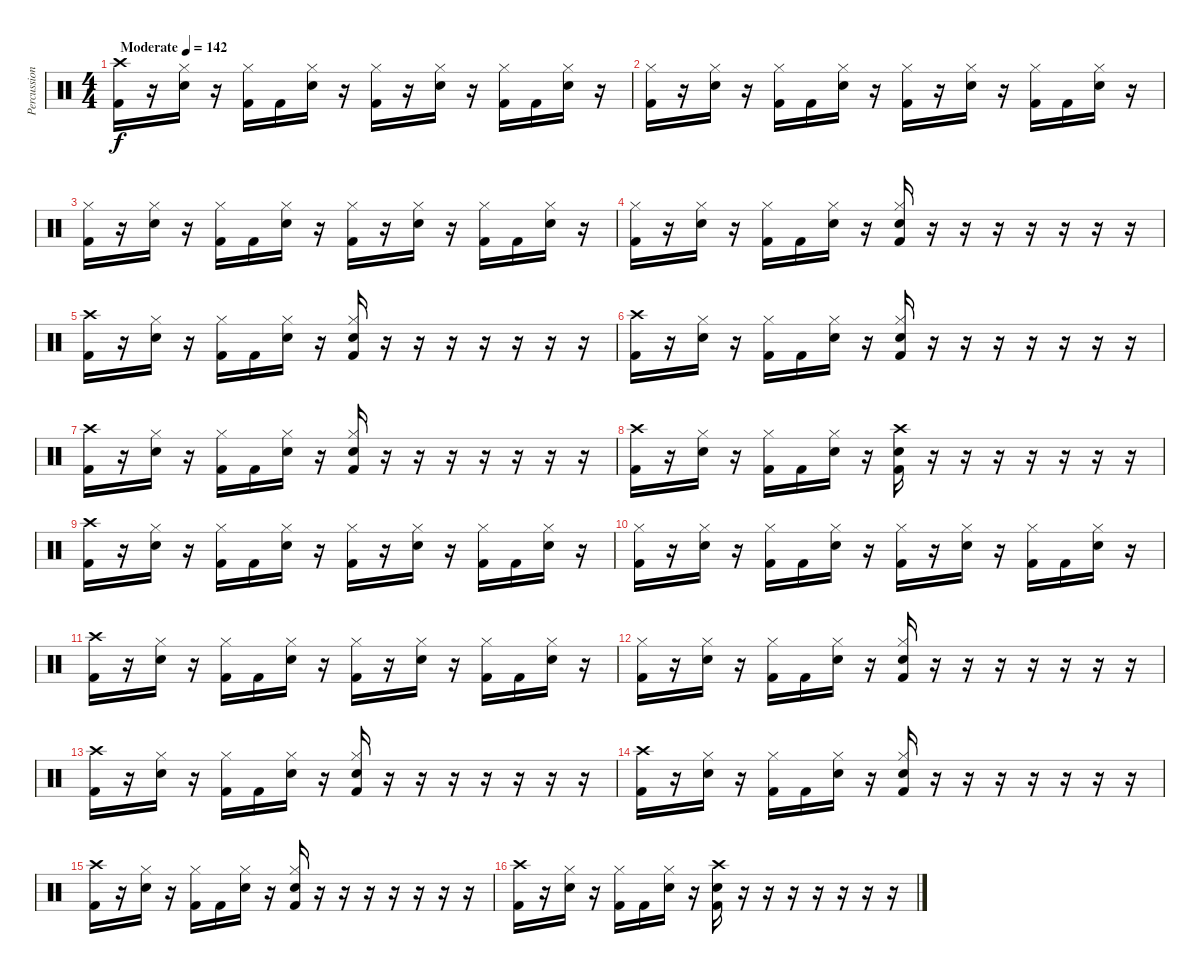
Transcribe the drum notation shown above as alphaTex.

\track ("Percussion" "Percussion") {instrument percussion}
\staff {score}
\articulation defaults
\ts (4 4)
\tempo (142 "Moderate")
\clef neutral
\ks c
("Crash high (hit)" "Kick (hit) 2").16{dy f} r.16 ("Hi-Hat (closed)" "Snare (hit) 2").16 r.16 ("Hi-Hat (closed)" "Kick (hit) 2").16 "Kick (hit) 2".16 ("Hi-Hat (closed)" "Snare (hit) 2").16 r.16 ("Hi-Hat (closed)" "Kick (hit) 2").16 r.16 ("Hi-Hat (closed)" "Snare (hit) 2").16 r.16 ("Hi-Hat (closed)" "Kick (hit) 2").16 "Kick (hit) 2".16 ("Hi-Hat (closed)" "Snare (hit) 2").16 r.16 |
("Hi-Hat (closed)" "Kick (hit) 2").16 r.16 ("Hi-Hat (closed)" "Snare (hit) 2").16 r.16 ("Hi-Hat (closed)" "Kick (hit) 2").16 "Kick (hit) 2".16 ("Hi-Hat (closed)" "Snare (hit) 2").16 r.16 ("Hi-Hat (closed)" "Kick (hit) 2").16 r.16 ("Hi-Hat (closed)" "Snare (hit) 2").16 r.16 ("Hi-Hat (closed)" "Kick (hit) 2").16 "Kick (hit) 2".16 ("Hi-Hat (closed)" "Snare (hit) 2").16 r.16 |
("Hi-Hat (closed)" "Kick (hit) 2").16 r.16 ("Hi-Hat (closed)" "Snare (hit) 2").16 r.16 ("Hi-Hat (closed)" "Kick (hit) 2").16 "Kick (hit) 2".16 ("Hi-Hat (closed)" "Snare (hit) 2").16 r.16 ("Hi-Hat (closed)" "Kick (hit) 2").16 r.16 ("Hi-Hat (closed)" "Snare (hit) 2").16 r.16 ("Hi-Hat (closed)" "Kick (hit) 2").16 "Kick (hit) 2".16 ("Hi-Hat (closed)" "Snare (hit) 2").16 r.16 |
("Hi-Hat (closed)" "Kick (hit) 2").16 r.16 ("Hi-Hat (closed)" "Snare (hit) 2").16 r.16 ("Hi-Hat (closed)" "Kick (hit) 2").16 "Kick (hit) 2".16 ("Hi-Hat (closed)" "Snare (hit) 2").16 r.16 ("Hi-Hat (closed)" "Snare (hit) 2" "Kick (hit) 2").16 r.16 r.16 r.16 r.16 r.16 r.16 r.16 |
("Crash high (hit)" "Kick (hit) 2").16 r.16 ("Hi-Hat (closed)" "Snare (hit) 2").16 r.16 ("Hi-Hat (closed)" "Kick (hit) 2").16 "Kick (hit) 2".16 ("Hi-Hat (closed)" "Snare (hit) 2").16 r.16 ("Hi-Hat (closed)" "Snare (hit) 2" "Kick (hit) 2").16 r.16 r.16 r.16 r.16 r.16 r.16 r.16 |
("Crash high (hit)" "Kick (hit) 2").16 r.16 ("Hi-Hat (closed)" "Snare (hit) 2").16 r.16 ("Hi-Hat (closed)" "Kick (hit) 2").16 "Kick (hit) 2".16 ("Hi-Hat (closed)" "Snare (hit) 2").16 r.16 ("Hi-Hat (closed)" "Snare (hit) 2" "Kick (hit) 2").16 r.16 r.16 r.16 r.16 r.16 r.16 r.16 |
("Crash high (hit)" "Kick (hit) 2").16 r.16 ("Hi-Hat (closed)" "Snare (hit) 2").16 r.16 ("Hi-Hat (closed)" "Kick (hit) 2").16 "Kick (hit) 2".16 ("Hi-Hat (closed)" "Snare (hit) 2").16 r.16 ("Hi-Hat (closed)" "Snare (hit) 2" "Kick (hit) 2").16 r.16 r.16 r.16 r.16 r.16 r.16 r.16 |
("Crash high (hit)" "Kick (hit) 2").16 r.16 ("Hi-Hat (closed)" "Snare (hit) 2").16 r.16 ("Hi-Hat (closed)" "Kick (hit) 2").16 "Kick (hit) 2".16 ("Hi-Hat (closed)" "Snare (hit) 2").16 r.16 ("Crash high (hit)" "Snare (hit) 2" "Kick (hit) 2").16 r.16 r.16 r.16 r.16 r.16 r.16 r.16 |
("Crash high (hit)" "Kick (hit) 2").16 r.16 ("Hi-Hat (closed)" "Snare (hit) 2").16 r.16 ("Hi-Hat (closed)" "Kick (hit) 2").16 "Kick (hit) 2".16 ("Hi-Hat (closed)" "Snare (hit) 2").16 r.16 ("Hi-Hat (closed)" "Kick (hit) 2").16 r.16 ("Hi-Hat (closed)" "Snare (hit) 2").16 r.16 ("Hi-Hat (closed)" "Kick (hit) 2").16 "Kick (hit) 2".16 ("Hi-Hat (closed)" "Snare (hit) 2").16 r.16 |
("Hi-Hat (closed)" "Kick (hit) 2").16 r.16 ("Hi-Hat (closed)" "Snare (hit) 2").16 r.16 ("Hi-Hat (closed)" "Kick (hit) 2").16 "Kick (hit) 2".16 ("Hi-Hat (closed)" "Snare (hit) 2").16 r.16 ("Hi-Hat (closed)" "Kick (hit) 2").16 r.16 ("Hi-Hat (closed)" "Snare (hit) 2").16 r.16 ("Hi-Hat (closed)" "Kick (hit) 2").16 "Kick (hit) 2".16 ("Hi-Hat (closed)" "Snare (hit) 2").16 r.16 |
("Crash high (hit)" "Kick (hit) 2").16 r.16 ("Hi-Hat (closed)" "Snare (hit) 2").16 r.16 ("Hi-Hat (closed)" "Kick (hit) 2").16 "Kick (hit) 2".16 ("Hi-Hat (closed)" "Snare (hit) 2").16 r.16 ("Hi-Hat (closed)" "Kick (hit) 2").16 r.16 ("Hi-Hat (closed)" "Snare (hit) 2").16 r.16 ("Hi-Hat (closed)" "Kick (hit) 2").16 "Kick (hit) 2".16 ("Hi-Hat (closed)" "Snare (hit) 2").16 r.16 |
("Hi-Hat (closed)" "Kick (hit) 2").16 r.16 ("Hi-Hat (closed)" "Snare (hit) 2").16 r.16 ("Hi-Hat (closed)" "Kick (hit) 2").16 "Kick (hit) 2".16 ("Hi-Hat (closed)" "Snare (hit) 2").16 r.16 ("Hi-Hat (closed)" "Snare (hit) 2" "Kick (hit) 2").16 r.16 r.16 r.16 r.16 r.16 r.16 r.16 |
("Crash high (hit)" "Kick (hit) 2").16 r.16 ("Hi-Hat (closed)" "Snare (hit) 2").16 r.16 ("Hi-Hat (closed)" "Kick (hit) 2").16 "Kick (hit) 2".16 ("Hi-Hat (closed)" "Snare (hit) 2").16 r.16 ("Hi-Hat (closed)" "Snare (hit) 2" "Kick (hit) 2").16 r.16 r.16 r.16 r.16 r.16 r.16 r.16 |
("Crash high (hit)" "Kick (hit) 2").16 r.16 ("Hi-Hat (closed)" "Snare (hit) 2").16 r.16 ("Hi-Hat (closed)" "Kick (hit) 2").16 "Kick (hit) 2".16 ("Hi-Hat (closed)" "Snare (hit) 2").16 r.16 ("Hi-Hat (closed)" "Snare (hit) 2" "Kick (hit) 2").16 r.16 r.16 r.16 r.16 r.16 r.16 r.16 |
("Crash high (hit)" "Kick (hit) 2").16 r.16 ("Hi-Hat (closed)" "Snare (hit) 2").16 r.16 ("Hi-Hat (closed)" "Kick (hit) 2").16 "Kick (hit) 2".16 ("Hi-Hat (closed)" "Snare (hit) 2").16 r.16 ("Hi-Hat (closed)" "Snare (hit) 2" "Kick (hit) 2").16 r.16 r.16 r.16 r.16 r.16 r.16 r.16 |
("Crash high (hit)" "Kick (hit) 2").16 r.16 ("Hi-Hat (closed)" "Snare (hit) 2").16 r.16 ("Hi-Hat (closed)" "Kick (hit) 2").16 "Kick (hit) 2".16 ("Hi-Hat (closed)" "Snare (hit) 2").16 r.16 ("Crash high (hit)" "Snare (hit) 2" "Kick (hit) 2").16 r.16 r.16 r.16 r.16 r.16 r.16 r.16
